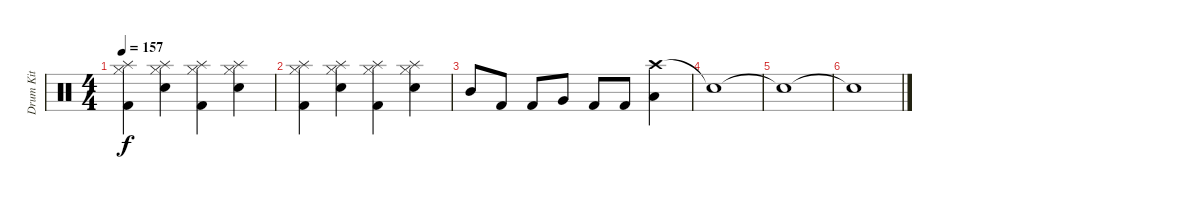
\track ("Drum Kit" "Drum Kit") {instrument percussion}
\staff {score}
\articulation defaults
\ts (4 4)
\tempo 157
\clef neutral
\ks c
("Splash (hit)" "Hi-Hat (closed)" "Kick (hit) 2").4{dy f} ("Splash (hit)" "Hi-Hat (closed)" "Snare (hit) 2").4 ("Splash (hit)" "Hi-Hat (closed)" "Kick (hit) 2").4 ("Splash (hit)" "Hi-Hat (closed)" "Snare (hit) 2").4 |
("Splash (hit)" "Hi-Hat (closed)" "Kick (hit) 2").4 ("Splash (hit)" "Hi-Hat (closed)" "Snare (hit) 2").4 ("Splash (hit)" "Hi-Hat (closed)" "Kick (hit) 2").4 ("Splash (hit)" "Hi-Hat (closed)" "Snare (hit) 2").4 |
"Mid Tom (hit)".8 "Kick (hit) 2".8 "Kick (hit) 2".8 "Very Low Tom (hit)".8 "Kick (hit) 2".8 "Kick (hit) 2".8 ("Crash high (hit)" "Low Floor Tom (hit)").4 |
"Snare (hit)"{t}.1 |
"Snare (hit)"{t}.1 |
"Snare (hit)"{t}.1
